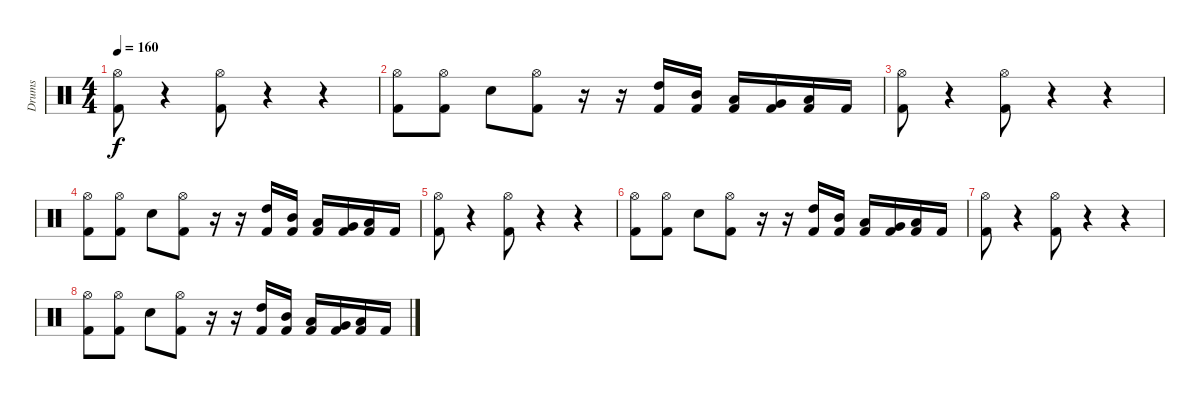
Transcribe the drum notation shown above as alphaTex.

\track ("Drums" "Drums") {instrument percussion}
\staff {score}
\articulation defaults
\ts (4 4)
\tempo 160
\clef neutral
\ks c
("Hi-Hat (open)" "Kick (hit) 2").8{dy f} r.4 ("Hi-Hat (open)" "Kick (hit) 2").8 r.4 r.4 |
("Hi-Hat (open)" "Kick (hit) 2").8 ("Hi-Hat (open)" "Kick (hit) 2").8 "Electric Snare (hit)".8 ("Hi-Hat (open)" "Kick (hit) 2").8 r.16 r.16 ("High Tom (hit)" "Kick (hit) 2").16 ("Mid Tom (hit)" "Kick (hit) 2").16 ("Low Tom (hit)" "Kick (hit) 2").16 ("Very Low Tom (hit)" "Kick (hit) 2").16 ("Low Floor Tom (hit)" "Kick (hit) 2").16 "Kick (hit) 2".16 |
("Hi-Hat (open)" "Kick (hit) 2").8 r.4 ("Hi-Hat (open)" "Kick (hit) 2").8 r.4 r.4 |
("Hi-Hat (open)" "Kick (hit) 2").8 ("Hi-Hat (open)" "Kick (hit) 2").8 "Electric Snare (hit)".8 ("Hi-Hat (open)" "Kick (hit) 2").8 r.16 r.16 ("High Tom (hit)" "Kick (hit) 2").16 ("Mid Tom (hit)" "Kick (hit) 2").16 ("Low Tom (hit)" "Kick (hit) 2").16 ("Very Low Tom (hit)" "Kick (hit) 2").16 ("Low Floor Tom (hit)" "Kick (hit) 2").16 "Kick (hit) 2".16 |
("Hi-Hat (open)" "Kick (hit) 2").8 r.4 ("Hi-Hat (open)" "Kick (hit) 2").8 r.4 r.4 |
("Hi-Hat (open)" "Kick (hit) 2").8 ("Hi-Hat (open)" "Kick (hit) 2").8 "Electric Snare (hit)".8 ("Hi-Hat (open)" "Kick (hit) 2").8 r.16 r.16 ("High Tom (hit)" "Kick (hit) 2").16 ("Mid Tom (hit)" "Kick (hit) 2").16 ("Low Tom (hit)" "Kick (hit) 2").16 ("Very Low Tom (hit)" "Kick (hit) 2").16 ("Low Floor Tom (hit)" "Kick (hit) 2").16 "Kick (hit) 2".16 |
("Hi-Hat (open)" "Kick (hit) 2").8 r.4 ("Hi-Hat (open)" "Kick (hit) 2").8 r.4 r.4 |
("Hi-Hat (open)" "Kick (hit) 2").8 ("Hi-Hat (open)" "Kick (hit) 2").8 "Electric Snare (hit)".8 ("Hi-Hat (open)" "Kick (hit) 2").8 r.16 r.16 ("High Tom (hit)" "Kick (hit) 2").16 ("Mid Tom (hit)" "Kick (hit) 2").16 ("Low Tom (hit)" "Kick (hit) 2").16 ("Very Low Tom (hit)" "Kick (hit) 2").16 ("Low Floor Tom (hit)" "Kick (hit) 2").16 "Kick (hit) 2".16
